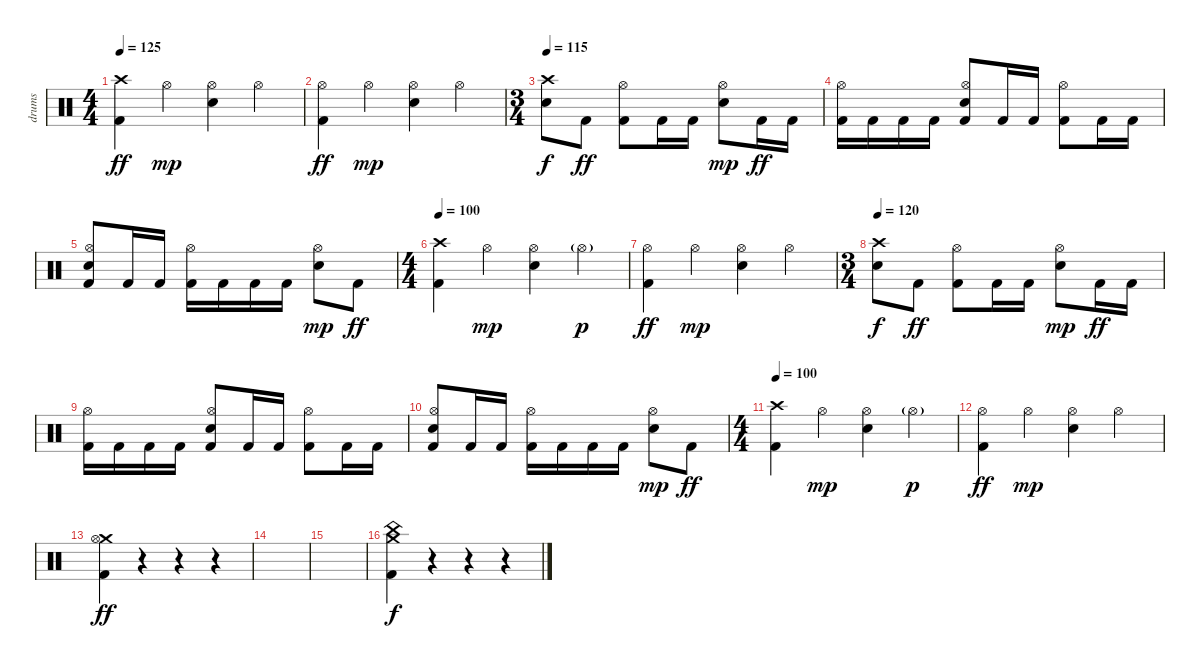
\track ("drums" "drums") {instrument percussion}
\staff {score}
\articulation defaults
\ts (4 4)
\tempo 125
\clef neutral
\ks c
("Crash high (hit)" "Kick (hit) 2").4{dy ff} "Hi-Hat (open)".4{dy mp} ("Hi-Hat (open)" "Snare (hit) 2").4 "Hi-Hat (open)".4 |
("Hi-Hat (open)" "Kick (hit) 2").4{dy ff} "Hi-Hat (open)".4{dy mp} ("Hi-Hat (open)" "Snare (hit) 2").4 "Hi-Hat (open)".4 |
\ts (3 4)
\tempo 115
("Crash high (hit)" "Snare (hit) 2").8{dy f} "Kick (hit) 2".8{dy ff} ("Hi-Hat (open)" "Kick (hit) 2").8 "Kick (hit) 2".16 "Kick (hit) 2".16 ("Hi-Hat (open)" "Snare (hit) 2").8{dy mp} "Kick (hit) 2".16{dy ff} "Kick (hit) 2".16 |
("Hi-Hat (open)" "Kick (hit) 2").16 "Kick (hit) 2".16 "Kick (hit) 2".16 "Kick (hit) 2".16 ("Hi-Hat (open)" "Snare (hit) 2" "Kick (hit) 2").8 "Kick (hit) 2".16 "Kick (hit) 2".16 ("Hi-Hat (open)" "Kick (hit) 2").8 "Kick (hit) 2".16 "Kick (hit) 2".16 |
("Hi-Hat (open)" "Snare (hit) 2" "Kick (hit) 2").8 "Kick (hit) 2".16 "Kick (hit) 2".16 ("Hi-Hat (open)" "Kick (hit) 2").16 "Kick (hit) 2".16 "Kick (hit) 2".16 "Kick (hit) 2".16 ("Hi-Hat (open)" "Snare (hit) 2").8{dy mp} "Kick (hit) 2".8{dy ff} |
\ts (4 4)
\tempo 100
("Crash high (hit)" "Kick (hit) 2").4 "Hi-Hat (open)".4{dy mp} ("Hi-Hat (open)" "Snare (hit) 2").4 "Hi-Hat (open)"{g}.4{dy p} |
("Hi-Hat (open)" "Kick (hit) 2").4{dy ff} "Hi-Hat (open)".4{dy mp} ("Hi-Hat (open)" "Snare (hit) 2").4 "Hi-Hat (open)".4 |
\ts (3 4)
\tempo 115
\tempo 120
("Crash high (hit)" "Snare (hit) 2").8{dy f} "Kick (hit) 2".8{dy ff} ("Hi-Hat (open)" "Kick (hit) 2").8 "Kick (hit) 2".16 "Kick (hit) 2".16 ("Hi-Hat (open)" "Snare (hit) 2").8{dy mp} "Kick (hit) 2".16{dy ff} "Kick (hit) 2".16 |
("Hi-Hat (open)" "Kick (hit) 2").16 "Kick (hit) 2".16 "Kick (hit) 2".16 "Kick (hit) 2".16 ("Hi-Hat (open)" "Snare (hit) 2" "Kick (hit) 2").8 "Kick (hit) 2".16 "Kick (hit) 2".16 ("Hi-Hat (open)" "Kick (hit) 2").8 "Kick (hit) 2".16 "Kick (hit) 2".16 |
("Hi-Hat (open)" "Snare (hit) 2" "Kick (hit) 2").8 "Kick (hit) 2".16 "Kick (hit) 2".16 ("Hi-Hat (open)" "Kick (hit) 2").16 "Kick (hit) 2".16 "Kick (hit) 2".16 "Kick (hit) 2".16 ("Hi-Hat (open)" "Snare (hit) 2").8{dy mp} "Kick (hit) 2".8{dy ff} |
\ts (4 4)
\tempo 100
("Crash high (hit)" "Kick (hit) 2").4 "Hi-Hat (open)".4{dy mp} ("Hi-Hat (open)" "Snare (hit) 2").4 "Hi-Hat (open)"{g}.4{dy p} |
("Hi-Hat (open)" "Kick (hit) 2").4{dy ff} "Hi-Hat (open)".4{dy mp} ("Hi-Hat (open)" "Snare (hit) 2").4 "Hi-Hat (open)".4 |
("Crash medium (hit)" "Hi-Hat (open)" "Kick (hit) 2").4{dy ff} r.4 r.4 r.4 |
|
|
("Crash medium (hit)" "China (hit)" "Kick (hit) 2").4{dy f} r.4 r.4 r.4
